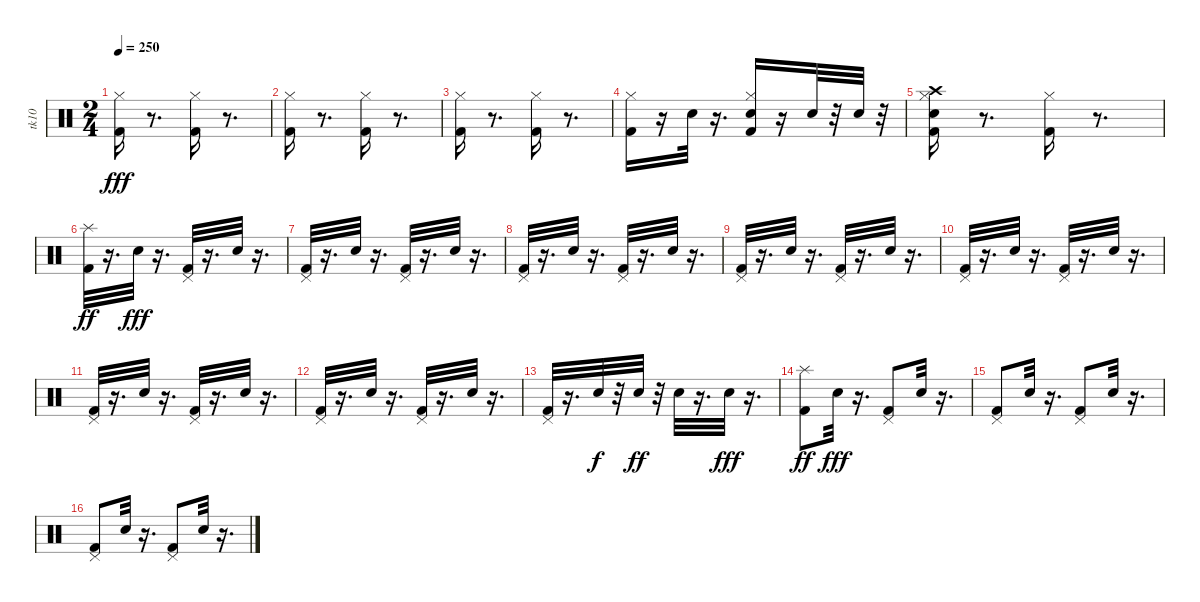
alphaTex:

\track ("tk10" "tk10") {instrument percussion}
\staff {score}
\articulation defaults
\ts (2 4)
\tempo 250
\clef neutral
\ks c
("Kick (hit) 2" "Hi-Hat (closed)").16{dy fff} r.8{d} ("Kick (hit) 2" "Hi-Hat (closed)").16 r.8{d} |
("Kick (hit) 2" "Hi-Hat (closed)").16 r.8{d} ("Hi-Hat (closed)" "Kick (hit) 2").16 r.8{d} |
("Hi-Hat (closed)" "Kick (hit) 2").16 r.8{d} ("Hi-Hat (closed)" "Kick (hit) 2").16 r.8{d} |
("Hi-Hat (closed)" "Kick (hit) 2").16 r.16 "Electric Snare (hit)".32 r.16{d} ("Hi-Hat (closed)" "Kick (hit) 2" "Electric Snare (hit)").16 r.16 "Electric Snare (hit)".32 r.32 "Electric Snare (hit)".32 r.32 |
("Hi-Hat (closed)" "Kick (hit) 2" "Crash high (hit)" "Electric Snare (hit)").16 r.8{d} ("Kick (hit) 2" "Hi-Hat (closed)").16 r.8{d} |
("Kick (hit) 2" "Splash (hit)").32{dy ff} r.16{d} "Snare (hit) 2".32{dy fff} r.16{d} ("Kick (hit) 2" "Pedal Hi-Hat (hit)").32 r.16{d} "Snare (hit) 2".32 r.16{d} |
("Kick (hit) 2" "Pedal Hi-Hat (hit)").32 r.16{d} "Snare (hit) 2".32 r.16{d} ("Kick (hit) 2" "Pedal Hi-Hat (hit)").32 r.16{d} "Snare (hit) 2".32 r.16{d} |
("Kick (hit) 2" "Pedal Hi-Hat (hit)").32 r.16{d} "Snare (hit) 2".32 r.16{d} ("Kick (hit) 2" "Pedal Hi-Hat (hit)").32 r.16{d} "Snare (hit) 2".32 r.16{d} |
("Kick (hit) 2" "Pedal Hi-Hat (hit)").32 r.16{d} "Snare (hit) 2".32 r.16{d} ("Kick (hit) 2" "Pedal Hi-Hat (hit)").32 r.16{d} "Snare (hit) 2".32 r.16{d} |
("Kick (hit) 2" "Pedal Hi-Hat (hit)").32 r.16{d} "Snare (hit) 2".32 r.16{d} ("Kick (hit) 2" "Pedal Hi-Hat (hit)").32 r.16{d} "Snare (hit) 2".32 r.16{d} |
("Kick (hit) 2" "Pedal Hi-Hat (hit)").32 r.16{d} "Snare (hit) 2".32 r.16{d} ("Kick (hit) 2" "Pedal Hi-Hat (hit)").32 r.16{d} "Snare (hit) 2".32 r.16{d} |
("Kick (hit) 2" "Pedal Hi-Hat (hit)").32 r.16{d} "Snare (hit) 2".32 r.16{d} ("Kick (hit) 2" "Pedal Hi-Hat (hit)").32 r.16{d} "Snare (hit) 2".32 r.16{d} |
("Kick (hit) 2" "Pedal Hi-Hat (hit)").32 r.16{d} "Electric Snare (hit)".32{dy f} r.32 "Electric Snare (hit)".32{dy ff} r.32 "Electric Snare (hit)".32 r.16{d} "Electric Snare (hit)".32{dy fff} r.16{d} |
("Kick (hit) 2" "Splash (hit)").8{dy ff} "Snare (hit) 2".32{dy fff} r.16{d} ("Kick (hit) 2" "Pedal Hi-Hat (hit)").8 "Snare (hit) 2".32 r.16{d} |
("Kick (hit) 2" "Pedal Hi-Hat (hit)").8 "Snare (hit) 2".32 r.16{d} ("Kick (hit) 2" "Pedal Hi-Hat (hit)").8 "Snare (hit) 2".32 r.16{d} |
("Kick (hit) 2" "Pedal Hi-Hat (hit)").8 "Snare (hit) 2".32 r.16{d} ("Kick (hit) 2" "Pedal Hi-Hat (hit)").8 "Snare (hit) 2".32 r.16{d}
